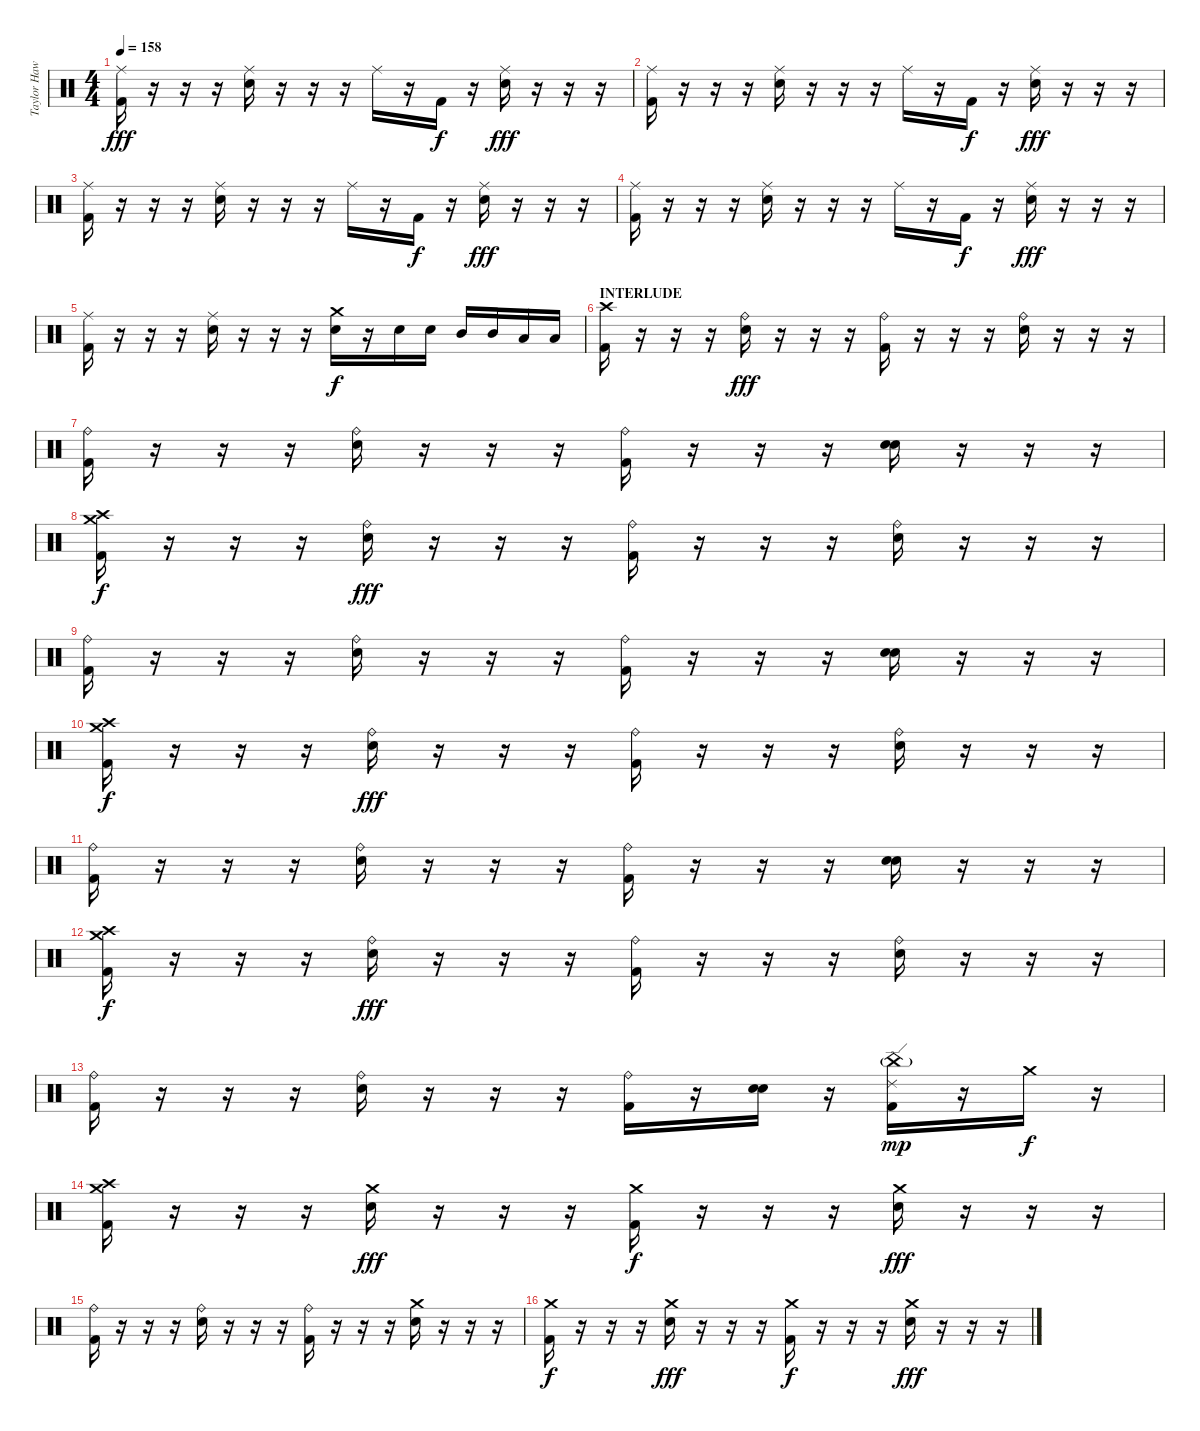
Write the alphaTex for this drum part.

\track ("Taylor Hawkins (Drums)" "Taylor Haw") {instrument percussion}
\staff {score}
\articulation defaults
\ts (4 4)
\tempo 158
\clef neutral
\ks c
("Ride (middle)" "Kick (hit) 2").16{dy fff} r.16 r.16 r.16 ("Ride (middle)" "Electric Snare (hit)").16 r.16 r.16 r.16 "Ride (middle)".16 r.16 "Kick (hit) 2".16{dy f} r.16 ("Ride (middle)" "Electric Snare (hit)").16{dy fff} r.16 r.16 r.16 |
("Ride (middle)" "Kick (hit) 2").16 r.16 r.16 r.16 ("Ride (middle)" "Electric Snare (hit)").16 r.16 r.16 r.16 "Ride (middle)".16 r.16 "Kick (hit) 2".16{dy f} r.16 ("Ride (middle)" "Electric Snare (hit)").16{dy fff} r.16 r.16 r.16 |
("Ride (middle)" "Kick (hit) 2").16 r.16 r.16 r.16 ("Ride (middle)" "Electric Snare (hit)").16 r.16 r.16 r.16 "Ride (middle)".16 r.16 "Kick (hit) 2".16{dy f} r.16 ("Ride (middle)" "Electric Snare (hit)").16{dy fff} r.16 r.16 r.16 |
("Ride (middle)" "Kick (hit) 2").16 r.16 r.16 r.16 ("Ride (middle)" "Electric Snare (hit)").16 r.16 r.16 r.16 "Ride (middle)".16 r.16 "Kick (hit) 2".16{dy f} r.16 ("Ride (middle)" "Electric Snare (hit)").16{dy fff} r.16 r.16 r.16 |
("Ride (middle)" "Kick (hit) 2").16 r.16 r.16 r.16 ("Ride (middle)" "Electric Snare (hit)").16 r.16 r.16 r.16 ("Crash medium (hit)" "Electric Snare (hit)").16{dy f} r.16 "Electric Snare (hit)".16 "Electric Snare (hit)".16 "Mid Tom (hit)".16 "Mid Tom (hit)".16 "Low Tom (hit)".16 "Low Tom (hit)".16 |
\section ("" "INTERLUDE")
("Crash high (hit)" "Kick (hit) 2").16 r.16 r.16 r.16 ("Ride (bell)" "Electric Snare (hit)").16{dy fff} r.16 r.16 r.16 ("Ride (bell)" "Kick (hit) 2").16 r.16 r.16 r.16 ("Ride (bell)" "Electric Snare (hit)").16 r.16 r.16 r.16 |
("Ride (bell)" "Kick (hit) 2").16 r.16 r.16 r.16 ("Ride (bell)" "Electric Snare (hit)").16 r.16 r.16 r.16 ("Ride (bell)" "Kick (hit) 2").16 r.16 r.16 r.16 ("Electric Snare (hit)" "Electric Snare (hit)").16{bu 120} r.16 r.16 r.16 |
("Crash high (hit)" "Crash medium (hit)" "Kick (hit) 2").16{dy f} r.16 r.16 r.16 ("Ride (bell)" "Electric Snare (hit)").16{dy fff} r.16 r.16 r.16 ("Ride (bell)" "Kick (hit) 2").16 r.16 r.16 r.16 ("Ride (bell)" "Electric Snare (hit)").16 r.16 r.16 r.16 |
("Ride (bell)" "Kick (hit) 2").16 r.16 r.16 r.16 ("Ride (bell)" "Electric Snare (hit)").16 r.16 r.16 r.16 ("Ride (bell)" "Kick (hit) 2").16 r.16 r.16 r.16 ("Electric Snare (hit)" "Electric Snare (hit)").16{bu 120} r.16 r.16 r.16 |
("Crash high (hit)" "Crash medium (hit)" "Kick (hit) 2").16{dy f} r.16 r.16 r.16 ("Ride (bell)" "Electric Snare (hit)").16{dy fff} r.16 r.16 r.16 ("Ride (bell)" "Kick (hit) 2").16 r.16 r.16 r.16 ("Ride (bell)" "Electric Snare (hit)").16 r.16 r.16 r.16 |
("Ride (bell)" "Kick (hit) 2").16 r.16 r.16 r.16 ("Ride (bell)" "Electric Snare (hit)").16 r.16 r.16 r.16 ("Ride (bell)" "Kick (hit) 2").16 r.16 r.16 r.16 ("Electric Snare (hit)" "Electric Snare (hit)").16{bu 120} r.16 r.16 r.16 |
("Crash high (hit)" "Crash medium (hit)" "Kick (hit) 2").16{dy f} r.16 r.16 r.16 ("Ride (bell)" "Electric Snare (hit)").16{dy fff} r.16 r.16 r.16 ("Ride (bell)" "Kick (hit) 2").16 r.16 r.16 r.16 ("Ride (bell)" "Electric Snare (hit)").16 r.16 r.16 r.16 |
("Ride (bell)" "Kick (hit) 2").16 r.16 r.16 r.16 ("Ride (bell)" "Electric Snare (hit)").16 r.16 r.16 r.16 ("Ride (bell)" "Kick (hit) 2").16 r.16 ("Electric Snare (hit)" "Electric Snare (hit)").16{bu 60} r.16 ("Ride (edge) 2" "China (hit)"{g} "Kick (hit) 2").16{dy mp} r.16 "Crash medium (hit)".16{dy f} r.16 |
("Crash high (hit)" "Crash medium (hit)" "Kick (hit) 2").16 r.16 r.16 r.16 ("Crash medium (hit)" "Electric Snare (hit)").16{dy fff} r.16 r.16 r.16 ("Crash medium (hit)" "Kick (hit) 2").16{dy f} r.16 r.16 r.16 ("Crash medium (hit)" "Electric Snare (hit)").16{dy fff} r.16 r.16 r.16 |
("Ride (bell)" "Kick (hit) 2").16 r.16 r.16 r.16 ("Ride (bell)" "Electric Snare (hit)").16 r.16 r.16 r.16 ("Ride (bell)" "Kick (hit) 2").16 r.16 r.16 r.16 ("Crash medium (hit)" "Electric Snare (hit)").16 r.16 r.16 r.16 |
("Crash medium (hit)" "Kick (hit) 2").16{dy f} r.16 r.16 r.16 ("Crash medium (hit)" "Electric Snare (hit)").16{dy fff} r.16 r.16 r.16 ("Crash medium (hit)" "Kick (hit) 2").16{dy f} r.16 r.16 r.16 ("Crash medium (hit)" "Electric Snare (hit)").16{dy fff} r.16 r.16 r.16
